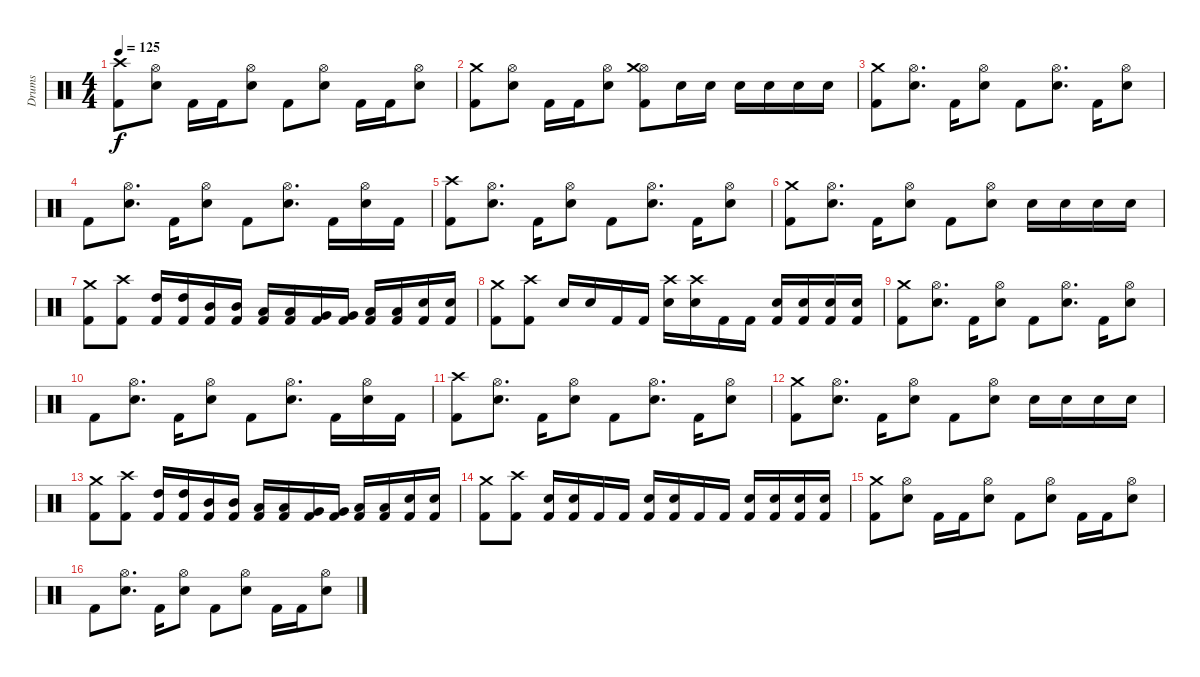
\track ("Drums" "Drums") {instrument percussion}
\staff {score}
\articulation defaults
\ts (4 4)
\tempo 125
\clef neutral
\ks c
("Crash high (hit)" "Kick (hit) 2").8{dy f} ("Hi-Hat (open)" "Snare (hit) 2").8 "Kick (hit) 2".16 "Kick (hit) 2".16 ("Hi-Hat (open)" "Snare (hit) 2").8 "Kick (hit) 2".8 ("Hi-Hat (open)" "Snare (hit) 2").8 "Kick (hit) 2".16 "Kick (hit) 2".16 ("Hi-Hat (open)" "Snare (hit) 2").8 |
("Crash medium (hit)" "Kick (hit) 2").8 ("Hi-Hat (open)" "Snare (hit) 2").8 "Kick (hit) 2".16 "Kick (hit) 2".16 ("Hi-Hat (open)" "Snare (hit) 2").8 ("Hi-Hat (open)" "Crash medium (hit)" "Kick (hit) 2").8 "Electric Snare (hit)".16 "Electric Snare (hit)".16 "Electric Snare (hit)".16 "Electric Snare (hit)".16 "Electric Snare (hit)".16 "Electric Snare (hit)".16 |
("Crash medium (hit)" "Kick (hit) 2").8 ("Hi-Hat (open)" "Snare (hit) 2").8{d} "Kick (hit) 2".16 ("Hi-Hat (open)" "Snare (hit) 2").8 "Kick (hit) 2".8 ("Hi-Hat (open)" "Snare (hit) 2").8{d} "Kick (hit) 2".16 ("Hi-Hat (open)" "Snare (hit) 2").8 |
"Kick (hit) 2".8 ("Hi-Hat (open)" "Snare (hit) 2").8{d} "Kick (hit) 2".16 ("Hi-Hat (open)" "Snare (hit) 2").8 "Kick (hit) 2".8 ("Hi-Hat (open)" "Snare (hit) 2").8{d} "Kick (hit) 2".16 ("Hi-Hat (open)" "Snare (hit) 2").16 "Kick (hit) 2".16 |
("Crash high (hit)" "Kick (hit) 2").8 ("Hi-Hat (open)" "Snare (hit) 2").8{d} "Kick (hit) 2".16 ("Hi-Hat (open)" "Snare (hit) 2").8 "Kick (hit) 2".8 ("Hi-Hat (open)" "Snare (hit) 2").8{d} "Kick (hit) 2".16 ("Hi-Hat (open)" "Snare (hit) 2").8 |
("Crash medium (hit)" "Kick (hit) 2").8 ("Hi-Hat (open)" "Snare (hit) 2").8{d} "Kick (hit) 2".16 ("Hi-Hat (open)" "Snare (hit) 2").8 "Kick (hit) 2".8 ("Hi-Hat (open)" "Snare (hit) 2").8 "Snare (hit) 2".16 "Snare (hit) 2".16 "Snare (hit) 2".16 "Snare (hit) 2".16 |
("Crash medium (hit)" "Kick (hit) 2").8 ("Crash high (hit)" "Kick (hit) 2").8 ("High Tom (hit)" "Kick (hit) 2").16 ("High Tom (hit)" "Kick (hit) 2").16 ("Mid Tom (hit)" "Kick (hit) 2").16 ("Mid Tom (hit)" "Kick (hit) 2").16 ("Low Tom (hit)" "Kick (hit) 2").16 ("Low Tom (hit)" "Kick (hit) 2").16 ("Very Low Tom (hit)" "Kick (hit) 2").16 ("Very Low Tom (hit)" "Kick (hit) 2").16 ("Low Floor Tom (hit)" "Kick (hit) 2").16 ("Low Floor Tom (hit)" "Kick (hit) 2").16 ("Snare (hit) 2" "Kick (hit) 2").16 ("Snare (hit) 2" "Kick (hit) 2").16 |
("Crash medium (hit)" "Kick (hit) 2").8 ("Crash high (hit)" "Kick (hit) 2").8 "Snare (hit) 2".16 "Snare (hit) 2".16 "Kick (hit) 2".16 "Kick (hit) 2".16 ("Crash high (hit)" "Snare (hit) 2").16 ("Crash high (hit)" "Snare (hit) 2").16 "Kick (hit) 2".16 "Kick (hit) 2".16 ("Snare (hit) 2" "Kick (hit) 2").16 ("Snare (hit) 2" "Kick (hit) 2").16 ("Snare (hit) 2" "Kick (hit) 2").16 ("Snare (hit) 2" "Kick (hit) 2").16 |
("Crash medium (hit)" "Kick (hit) 2").8 ("Hi-Hat (open)" "Snare (hit) 2").8{d} "Kick (hit) 2".16 ("Hi-Hat (open)" "Snare (hit) 2").8 "Kick (hit) 2".8 ("Hi-Hat (open)" "Snare (hit) 2").8{d} "Kick (hit) 2".16 ("Hi-Hat (open)" "Snare (hit) 2").8 |
"Kick (hit) 2".8 ("Hi-Hat (open)" "Snare (hit) 2").8{d} "Kick (hit) 2".16 ("Hi-Hat (open)" "Snare (hit) 2").8 "Kick (hit) 2".8 ("Hi-Hat (open)" "Snare (hit) 2").8{d} "Kick (hit) 2".16 ("Hi-Hat (open)" "Snare (hit) 2").16 "Kick (hit) 2".16 |
("Crash high (hit)" "Kick (hit) 2").8 ("Hi-Hat (open)" "Snare (hit) 2").8{d} "Kick (hit) 2".16 ("Hi-Hat (open)" "Snare (hit) 2").8 "Kick (hit) 2".8 ("Hi-Hat (open)" "Snare (hit) 2").8{d} "Kick (hit) 2".16 ("Hi-Hat (open)" "Snare (hit) 2").8 |
("Crash medium (hit)" "Kick (hit) 2").8 ("Hi-Hat (open)" "Snare (hit) 2").8{d} "Kick (hit) 2".16 ("Hi-Hat (open)" "Snare (hit) 2").8 "Kick (hit) 2".8 ("Hi-Hat (open)" "Snare (hit) 2").8 "Snare (hit) 2".16 "Snare (hit) 2".16 "Snare (hit) 2".16 "Snare (hit) 2".16 |
("Crash medium (hit)" "Kick (hit) 2").8 ("Crash high (hit)" "Kick (hit) 2").8 ("High Tom (hit)" "Kick (hit) 2").16 ("High Tom (hit)" "Kick (hit) 2").16 ("Mid Tom (hit)" "Kick (hit) 2").16 ("Mid Tom (hit)" "Kick (hit) 2").16 ("Low Tom (hit)" "Kick (hit) 2").16 ("Low Tom (hit)" "Kick (hit) 2").16 ("Very Low Tom (hit)" "Kick (hit) 2").16 ("Very Low Tom (hit)" "Kick (hit) 2").16 ("Low Floor Tom (hit)" "Kick (hit) 2").16 ("Low Floor Tom (hit)" "Kick (hit) 2").16 ("Snare (hit) 2" "Kick (hit) 2").16 ("Snare (hit) 2" "Kick (hit) 2").16 |
("Crash medium (hit)" "Kick (hit) 2").8 ("Crash high (hit)" "Kick (hit) 2").8 ("Snare (hit) 2" "Kick (hit) 2").16 ("Snare (hit) 2" "Kick (hit) 2").16 "Kick (hit) 2".16 "Kick (hit) 2".16 ("Snare (hit) 2" "Kick (hit) 2").16 ("Snare (hit) 2" "Kick (hit) 2").16 "Kick (hit) 2".16 "Kick (hit) 2".16 ("Snare (hit) 2" "Kick (hit) 2").16 ("Snare (hit) 2" "Kick (hit) 2").16 ("Snare (hit) 2" "Kick (hit) 2").16 ("Snare (hit) 2" "Kick (hit) 2").16 |
("Crash medium (hit)" "Kick (hit) 2").8 ("Hi-Hat (open)" "Snare (hit) 2").8 "Kick (hit) 2".16 "Kick (hit) 2".16 ("Hi-Hat (open)" "Snare (hit) 2").8 "Kick (hit) 2".8 ("Hi-Hat (open)" "Snare (hit) 2").8 "Kick (hit) 2".16 "Kick (hit) 2".16 ("Hi-Hat (open)" "Snare (hit) 2").8 |
"Kick (hit) 2".8 ("Hi-Hat (open)" "Snare (hit) 2").8{d} "Kick (hit) 2".16 ("Hi-Hat (open)" "Snare (hit) 2").8 "Kick (hit) 2".8 ("Hi-Hat (open)" "Snare (hit) 2").8 "Kick (hit) 2".16 "Kick (hit) 2".16 ("Hi-Hat (open)" "Snare (hit) 2").8
